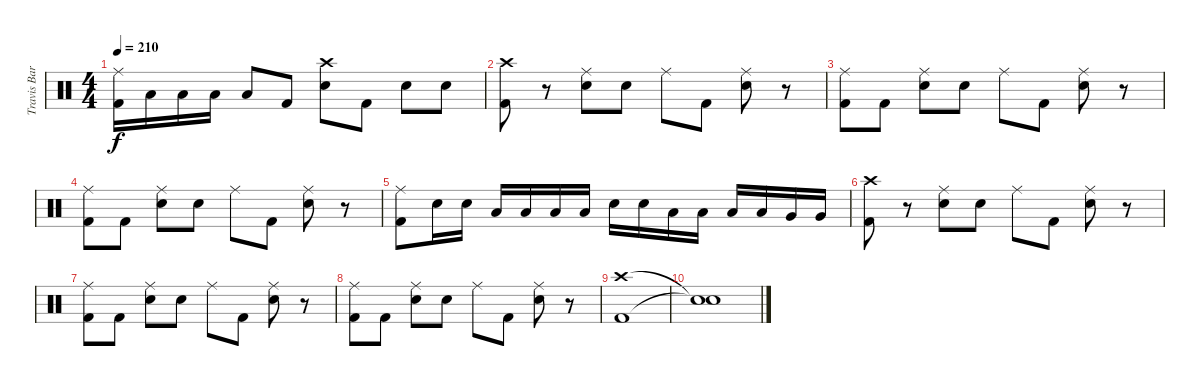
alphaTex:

\track ("Travis Barker" "Travis Bar") {instrument percussion}
\staff {score}
\articulation defaults
\ts (4 4)
\tempo 210
\clef neutral
\ks c
("Ride (middle)" "Kick (hit) 2").16{dy f} "Low Tom (hit)".16 "Low Tom (hit)".16 "Low Tom (hit)".16 "Low Tom (hit)".8 "Kick (hit) 2".8 ("Crash high (hit)" "Electric Snare (hit)").8 "Kick (hit) 2".8 "Electric Snare (hit)".8 "Electric Snare (hit)".8 |
("Crash high (hit)" "Kick (hit) 2").8 r.8 ("Ride (middle)" "Electric Snare (hit)").8 "Electric Snare (hit)".8 "Ride (middle)".8 "Kick (hit) 2".8 ("Ride (middle)" "Electric Snare (hit)").8 r.8 |
("Ride (middle)" "Kick (hit) 2").8 "Kick (hit) 2".8 ("Ride (middle)" "Electric Snare (hit)").8 "Electric Snare (hit)".8 "Ride (middle)".8 "Kick (hit) 2".8 ("Ride (middle)" "Electric Snare (hit)").8 r.8 |
("Ride (middle)" "Kick (hit) 2").8 "Kick (hit) 2".8 ("Ride (middle)" "Electric Snare (hit)").8 "Electric Snare (hit)".8 "Ride (middle)".8 "Kick (hit) 2".8 ("Ride (middle)" "Electric Snare (hit)").8 r.8 |
("Ride (middle)" "Kick (hit) 2").8 "Electric Snare (hit)".16 "Electric Snare (hit)".16 "Low Tom (hit)".16 "Low Tom (hit)".16 "Low Tom (hit)".16 "Low Tom (hit)".16 "Electric Snare (hit)".16 "Electric Snare (hit)".16 "Low Tom (hit)".16 "Low Tom (hit)".16 "Low Tom (hit)".16 "Low Tom (hit)".16 "Very Low Tom (hit)".16 "Very Low Tom (hit)".16 |
("Crash high (hit)" "Kick (hit) 2").8 r.8 ("Ride (middle)" "Electric Snare (hit)").8 "Electric Snare (hit)".8 "Ride (middle)".8 "Kick (hit) 2".8 ("Ride (middle)" "Electric Snare (hit)").8 r.8 |
("Ride (middle)" "Kick (hit) 2").8 "Kick (hit) 2".8 ("Ride (middle)" "Electric Snare (hit)").8 "Electric Snare (hit)".8 "Ride (middle)".8 "Kick (hit) 2".8 ("Ride (middle)" "Electric Snare (hit)").8 r.8 |
("Ride (middle)" "Kick (hit) 2").8 "Kick (hit) 2".8 ("Ride (middle)" "Electric Snare (hit)").8 "Electric Snare (hit)".8 "Ride (middle)".8 "Kick (hit) 2".8 ("Ride (middle)" "Electric Snare (hit)").8 r.8 |
("Crash high (hit)" "Kick (hit) 2").1 |
("Snare (hit)"{t} "Snare (hit)"{t}).1
